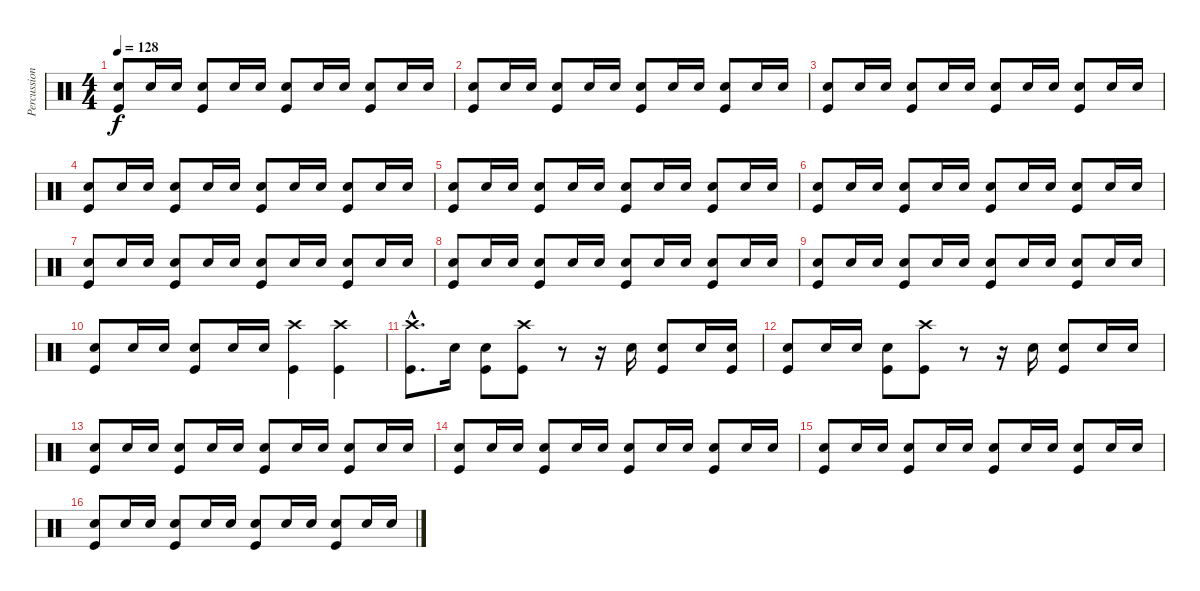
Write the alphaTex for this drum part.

\track ("Percussion" "Percussion") {instrument percussion}
\staff {score}
\articulation defaults
\ts (4 4)
\tempo 128
\clef neutral
\ks c
("Snare (hit) 2" "Kick (hit)").8{dy f} "Snare (hit) 2".16 "Snare (hit) 2".16 ("Snare (hit) 2" "Kick (hit)").8 "Snare (hit) 2".16 "Snare (hit) 2".16 ("Snare (hit) 2" "Kick (hit)").8 "Snare (hit) 2".16 "Snare (hit) 2".16 ("Snare (hit) 2" "Kick (hit)").8 "Snare (hit) 2".16 "Snare (hit) 2".16 |
("Snare (hit) 2" "Kick (hit)").8 "Snare (hit) 2".16 "Snare (hit) 2".16 ("Snare (hit) 2" "Kick (hit)").8 "Snare (hit) 2".16 "Snare (hit) 2".16 ("Snare (hit) 2" "Kick (hit)").8 "Snare (hit) 2".16 "Snare (hit) 2".16 ("Snare (hit) 2" "Kick (hit)").8 "Snare (hit) 2".16 "Snare (hit) 2".16 |
("Snare (hit) 2" "Kick (hit)").8 "Snare (hit) 2".16 "Snare (hit) 2".16 ("Snare (hit) 2" "Kick (hit)").8 "Snare (hit) 2".16 "Snare (hit) 2".16 ("Snare (hit) 2" "Kick (hit)").8 "Snare (hit) 2".16 "Snare (hit) 2".16 ("Snare (hit) 2" "Kick (hit)").8 "Snare (hit) 2".16 "Snare (hit) 2".16 |
("Snare (hit) 2" "Kick (hit)").8 "Snare (hit) 2".16 "Snare (hit) 2".16 ("Snare (hit) 2" "Kick (hit)").8 "Snare (hit) 2".16 "Snare (hit) 2".16 ("Snare (hit) 2" "Kick (hit)").8 "Snare (hit) 2".16 "Snare (hit) 2".16 ("Snare (hit) 2" "Kick (hit)").8 "Snare (hit) 2".16 "Snare (hit) 2".16 |
("Snare (hit) 2" "Kick (hit)").8 "Snare (hit) 2".16 "Snare (hit) 2".16 ("Snare (hit) 2" "Kick (hit)").8 "Snare (hit) 2".16 "Snare (hit) 2".16 ("Snare (hit) 2" "Kick (hit)").8 "Snare (hit) 2".16 "Snare (hit) 2".16 ("Snare (hit) 2" "Kick (hit)").8 "Snare (hit) 2".16 "Snare (hit) 2".16 |
("Snare (hit) 2" "Kick (hit)").8 "Snare (hit) 2".16 "Snare (hit) 2".16 ("Snare (hit) 2" "Kick (hit)").8 "Snare (hit) 2".16 "Snare (hit) 2".16 ("Snare (hit) 2" "Kick (hit)").8 "Snare (hit) 2".16 "Snare (hit) 2".16 ("Snare (hit) 2" "Kick (hit)").8 "Snare (hit) 2".16 "Snare (hit) 2".16 |
("Snare (hit) 2" "Kick (hit)").8 "Snare (hit) 2".16 "Snare (hit) 2".16 ("Snare (hit) 2" "Kick (hit)").8 "Snare (hit) 2".16 "Snare (hit) 2".16 ("Snare (hit) 2" "Kick (hit)").8 "Snare (hit) 2".16 "Snare (hit) 2".16 ("Snare (hit) 2" "Kick (hit)").8 "Snare (hit) 2".16 "Snare (hit) 2".16 |
("Snare (hit) 2" "Kick (hit)").8 "Snare (hit) 2".16 "Snare (hit) 2".16 ("Snare (hit) 2" "Kick (hit)").8 "Snare (hit) 2".16 "Snare (hit) 2".16 ("Snare (hit) 2" "Kick (hit)").8 "Snare (hit) 2".16 "Snare (hit) 2".16 ("Snare (hit) 2" "Kick (hit)").8 "Snare (hit) 2".16 "Snare (hit) 2".16 |
("Snare (hit) 2" "Kick (hit)").8 "Snare (hit) 2".16 "Snare (hit) 2".16 ("Snare (hit) 2" "Kick (hit)").8 "Snare (hit) 2".16 "Snare (hit) 2".16 ("Snare (hit) 2" "Kick (hit)").8 "Snare (hit) 2".16 "Snare (hit) 2".16 ("Snare (hit) 2" "Kick (hit)").8 "Snare (hit) 2".16 "Snare (hit) 2".16 |
("Snare (hit) 2" "Kick (hit)").8 "Snare (hit) 2".16 "Snare (hit) 2".16 ("Snare (hit) 2" "Kick (hit)").8 "Snare (hit) 2".16 "Snare (hit) 2".16 ("Crash high (hit)" "Kick (hit)").4 ("Crash high (hit)" "Kick (hit)").4 |
("Crash high (hit)"{hac} "Kick (hit)"{hac}).8{d} "Snare (hit) 2".16 ("Snare (hit) 2" "Kick (hit)").8 ("Crash high (hit)" "Kick (hit)").8 r.8 r.16 "Snare (hit) 2".16 ("Snare (hit) 2" "Kick (hit)").8 "Snare (hit) 2".16 ("Snare (hit) 2" "Kick (hit)").16 |
("Snare (hit) 2" "Kick (hit)").8 "Snare (hit) 2".16 "Snare (hit) 2".16 ("Snare (hit) 2" "Kick (hit)").8 ("Crash high (hit)" "Kick (hit)").8 r.8 r.16 "Snare (hit) 2".16 ("Snare (hit) 2" "Kick (hit)").8 "Snare (hit) 2".16 "Snare (hit) 2".16 |
("Snare (hit) 2" "Kick (hit)").8 "Snare (hit) 2".16 "Snare (hit) 2".16 ("Snare (hit) 2" "Kick (hit)").8 "Snare (hit) 2".16 "Snare (hit) 2".16 ("Snare (hit) 2" "Kick (hit)").8 "Snare (hit) 2".16 "Snare (hit) 2".16 ("Snare (hit) 2" "Kick (hit)").8 "Snare (hit) 2".16 "Snare (hit) 2".16 |
("Snare (hit) 2" "Kick (hit)").8 "Snare (hit) 2".16 "Snare (hit) 2".16 ("Snare (hit) 2" "Kick (hit)").8 "Snare (hit) 2".16 "Snare (hit) 2".16 ("Snare (hit) 2" "Kick (hit)").8 "Snare (hit) 2".16 "Snare (hit) 2".16 ("Snare (hit) 2" "Kick (hit)").8 "Snare (hit) 2".16 "Snare (hit) 2".16 |
("Snare (hit) 2" "Kick (hit)").8 "Snare (hit) 2".16 "Snare (hit) 2".16 ("Snare (hit) 2" "Kick (hit)").8 "Snare (hit) 2".16 "Snare (hit) 2".16 ("Snare (hit) 2" "Kick (hit)").8 "Snare (hit) 2".16 "Snare (hit) 2".16 ("Snare (hit) 2" "Kick (hit)").8 "Snare (hit) 2".16 "Snare (hit) 2".16 |
("Snare (hit) 2" "Kick (hit)").8 "Snare (hit) 2".16 "Snare (hit) 2".16 ("Snare (hit) 2" "Kick (hit)").8 "Snare (hit) 2".16 "Snare (hit) 2".16 ("Snare (hit) 2" "Kick (hit)").8 "Snare (hit) 2".16 "Snare (hit) 2".16 ("Snare (hit) 2" "Kick (hit)").8 "Snare (hit) 2".16 "Snare (hit) 2".16
